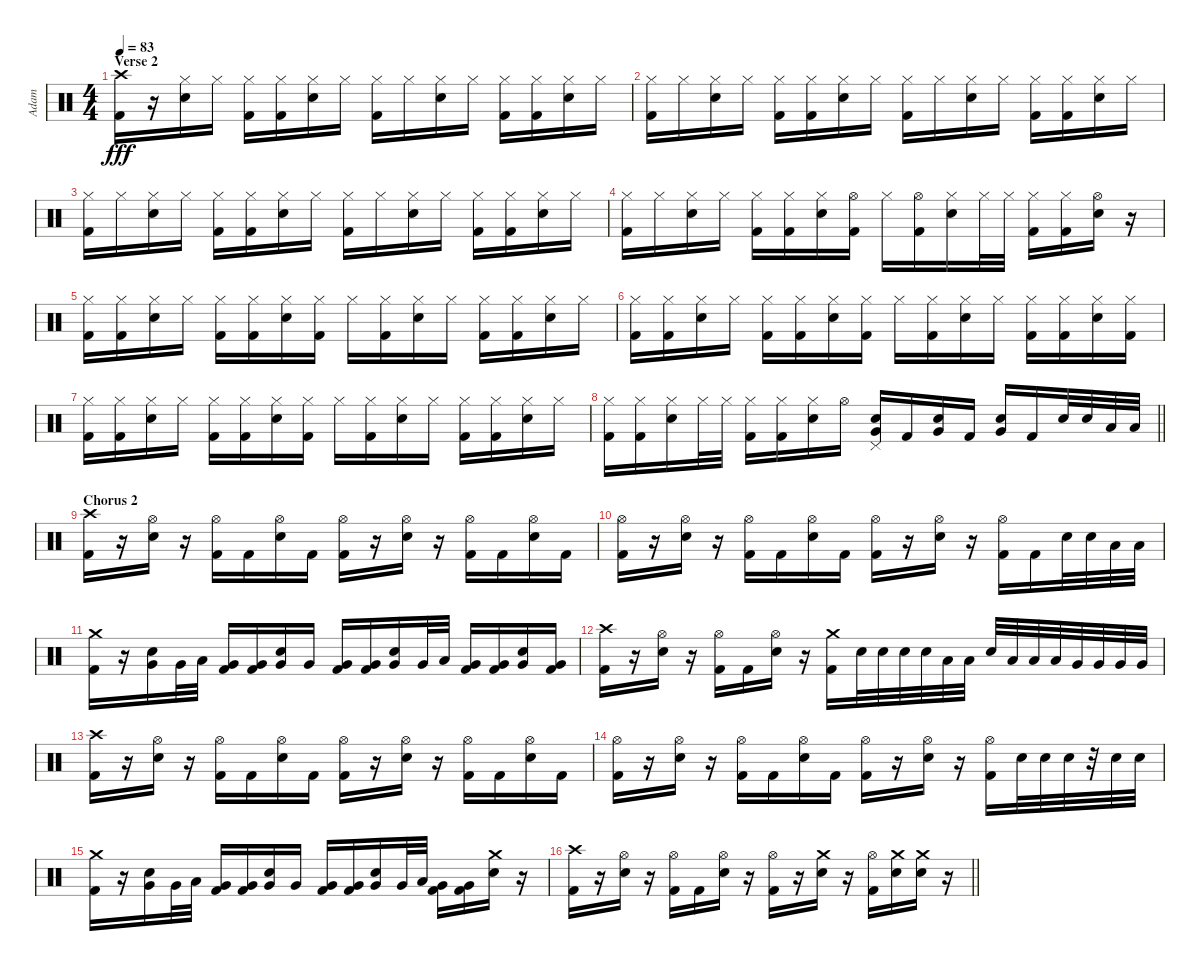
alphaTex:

\track ("Adam" "Adam") {instrument percussion}
\staff {score}
\articulation defaults
\ts (4 4)
\section ("" "Verse 2")
\tempo 83
\clef neutral
\ks c
("Crash high (hit)" "Kick (hit) 2").16{dy fff} r.16 ("Hi-Hat (closed)" "Electric Snare (hit)").16 "Hi-Hat (closed)".16 ("Hi-Hat (closed)" "Kick (hit) 2").16 ("Hi-Hat (closed)" "Kick (hit) 2").16 ("Hi-Hat (closed)" "Electric Snare (hit)").16 "Hi-Hat (closed)".16 ("Hi-Hat (closed)" "Kick (hit) 2").16 "Hi-Hat (closed)".16 ("Hi-Hat (closed)" "Electric Snare (hit)").16 "Hi-Hat (closed)".16 ("Hi-Hat (closed)" "Kick (hit) 2").16 ("Hi-Hat (closed)" "Kick (hit) 2").16 ("Hi-Hat (closed)" "Electric Snare (hit)").16 "Hi-Hat (closed)".16 |
("Hi-Hat (closed)" "Kick (hit) 2").16 "Hi-Hat (closed)".16 ("Hi-Hat (closed)" "Electric Snare (hit)").16 "Hi-Hat (closed)".16 ("Hi-Hat (closed)" "Kick (hit) 2").16 ("Hi-Hat (closed)" "Kick (hit) 2").16 ("Hi-Hat (closed)" "Electric Snare (hit)").16 "Hi-Hat (closed)".16 ("Hi-Hat (closed)" "Kick (hit) 2").16 "Hi-Hat (closed)".16 ("Hi-Hat (closed)" "Electric Snare (hit)").16 "Hi-Hat (closed)".16 ("Hi-Hat (closed)" "Kick (hit) 2").16 ("Hi-Hat (closed)" "Kick (hit) 2").16 ("Hi-Hat (closed)" "Electric Snare (hit)").16 "Hi-Hat (closed)".16 |
("Hi-Hat (closed)" "Kick (hit) 2").16 "Hi-Hat (closed)".16 ("Hi-Hat (closed)" "Electric Snare (hit)").16 "Hi-Hat (closed)".16 ("Hi-Hat (closed)" "Kick (hit) 2").16 ("Hi-Hat (closed)" "Kick (hit) 2").16 ("Hi-Hat (closed)" "Electric Snare (hit)").16 "Hi-Hat (closed)".16 ("Hi-Hat (closed)" "Kick (hit) 2").16 "Hi-Hat (closed)".16 ("Hi-Hat (closed)" "Electric Snare (hit)").16 "Hi-Hat (closed)".16 ("Hi-Hat (closed)" "Kick (hit) 2").16 ("Hi-Hat (closed)" "Kick (hit) 2").16 ("Hi-Hat (closed)" "Electric Snare (hit)").16 "Hi-Hat (closed)".16 |
("Hi-Hat (closed)" "Kick (hit) 2").16 "Hi-Hat (closed)".16 ("Hi-Hat (closed)" "Electric Snare (hit)").16 "Hi-Hat (closed)".16 ("Hi-Hat (closed)" "Kick (hit) 2").16 ("Hi-Hat (closed)" "Kick (hit) 2").16 ("Hi-Hat (closed)" "Electric Snare (hit)").16 ("Hi-Hat (open)" "Kick (hit) 2").16 "Hi-Hat (closed)".16 ("Hi-Hat (open)" "Kick (hit) 2").16 ("Hi-Hat (closed)" "Electric Snare (hit)").16 "Hi-Hat (closed)".32 "Hi-Hat (closed)".32 ("Hi-Hat (closed)" "Kick (hit) 2").16 ("Hi-Hat (closed)" "Kick (hit) 2").16 ("Hi-Hat (open)" "Electric Snare (hit)").16 r.16 |
("Hi-Hat (closed)" "Kick (hit) 2").16 ("Hi-Hat (closed)" "Kick (hit) 2").16 ("Hi-Hat (closed)" "Electric Snare (hit)").16 "Hi-Hat (closed)".16 ("Hi-Hat (closed)" "Kick (hit) 2").16 ("Hi-Hat (closed)" "Kick (hit) 2").16 ("Hi-Hat (closed)" "Electric Snare (hit)").16 ("Hi-Hat (closed)" "Kick (hit) 2").16 "Hi-Hat (closed)".16 ("Hi-Hat (closed)" "Kick (hit) 2").16 ("Hi-Hat (closed)" "Electric Snare (hit)").16 "Hi-Hat (closed)".16 ("Hi-Hat (closed)" "Kick (hit) 2").16 ("Hi-Hat (closed)" "Kick (hit) 2").16 ("Hi-Hat (closed)" "Electric Snare (hit)").16 "Hi-Hat (closed)".16 |
("Hi-Hat (closed)" "Kick (hit) 2").16 ("Hi-Hat (closed)" "Kick (hit) 2").16 ("Hi-Hat (closed)" "Electric Snare (hit)").16 "Hi-Hat (closed)".16 ("Hi-Hat (closed)" "Kick (hit) 2").16 ("Hi-Hat (closed)" "Kick (hit) 2").16 ("Hi-Hat (closed)" "Electric Snare (hit)").16 ("Hi-Hat (closed)" "Kick (hit) 2").16 "Hi-Hat (closed)".16 ("Hi-Hat (closed)" "Kick (hit) 2").16 ("Hi-Hat (closed)" "Electric Snare (hit)").16 "Hi-Hat (closed)".16 ("Hi-Hat (closed)" "Kick (hit) 2").16 ("Hi-Hat (closed)" "Kick (hit) 2").16 ("Hi-Hat (closed)" "Electric Snare (hit)").16 ("Hi-Hat (closed)" "Kick (hit) 2").16 |
("Hi-Hat (closed)" "Kick (hit) 2").16 ("Hi-Hat (closed)" "Kick (hit) 2").16 ("Hi-Hat (closed)" "Electric Snare (hit)").16 "Hi-Hat (closed)".16 ("Hi-Hat (closed)" "Kick (hit) 2").16 ("Hi-Hat (closed)" "Kick (hit) 2").16 ("Hi-Hat (closed)" "Electric Snare (hit)").16 ("Hi-Hat (closed)" "Kick (hit) 2").16 "Hi-Hat (closed)".16 ("Hi-Hat (closed)" "Kick (hit) 2").16 ("Hi-Hat (closed)" "Electric Snare (hit)").16 "Hi-Hat (closed)".16 ("Hi-Hat (closed)" "Kick (hit) 2").16 ("Hi-Hat (closed)" "Kick (hit) 2").16 ("Hi-Hat (closed)" "Electric Snare (hit)").16 "Hi-Hat (closed)".16 |
\barLineRight lightlight
("Hi-Hat (closed)" "Kick (hit) 2").16 ("Hi-Hat (closed)" "Kick (hit) 2").16 ("Hi-Hat (closed)" "Electric Snare (hit)").16 "Hi-Hat (closed)".32 "Hi-Hat (closed)".32 ("Hi-Hat (closed)" "Kick (hit) 2").16 ("Hi-Hat (closed)" "Kick (hit) 2").16 ("Hi-Hat (closed)" "Electric Snare (hit)").16 "Hi-Hat (open)".16 ("Pedal Hi-Hat (hit)" "Electric Snare (hit)" "Very Low Tom (hit)").16 "Kick (hit) 2".16 ("Electric Snare (hit)" "Very Low Tom (hit)").16 "Kick (hit) 2".16 ("Electric Snare (hit)" "Very Low Tom (hit)").16 "Kick (hit) 2".16 "Electric Snare (hit)".32 "Electric Snare (hit)".32 "Low Tom (hit)".32 "Low Tom (hit)".32 |
\section ("" "Chorus 2")
("Crash high (hit)" "Kick (hit) 2").16 r.16 ("Hi-Hat (open)" "Electric Snare (hit)").16 r.16 ("Hi-Hat (open)" "Kick (hit) 2").16 "Kick (hit) 2".16 ("Hi-Hat (open)" "Electric Snare (hit)").16 "Kick (hit) 2".16 ("Hi-Hat (open)" "Kick (hit) 2").16 r.16 ("Hi-Hat (open)" "Electric Snare (hit)").16 r.16 ("Hi-Hat (open)" "Kick (hit) 2").16 "Kick (hit) 2".16 ("Hi-Hat (open)" "Electric Snare (hit)").16 "Kick (hit) 2".16 |
("Hi-Hat (open)" "Kick (hit) 2").16 r.16 ("Hi-Hat (open)" "Electric Snare (hit)").16 r.16 ("Hi-Hat (open)" "Kick (hit) 2").16 "Kick (hit) 2".16 ("Hi-Hat (open)" "Electric Snare (hit)").16 "Kick (hit) 2".16 ("Hi-Hat (open)" "Kick (hit) 2").16 r.16 ("Hi-Hat (open)" "Electric Snare (hit)").16 r.16 ("Hi-Hat (open)" "Kick (hit) 2").16 "Kick (hit) 2".16 "Electric Snare (hit)".32 "Electric Snare (hit)".32 "Low Tom (hit)".32 "Low Tom (hit)".32 |
("Crash medium (hit)" "Kick (hit) 2").16 r.16 ("Electric Snare (hit)" "Very Low Tom (hit)").16 "Very Low Tom (hit)".32 "Low Tom (hit)".32 ("Very Low Tom (hit)" "Kick (hit) 2").16 ("Very Low Tom (hit)" "Kick (hit) 2").16 ("Electric Snare (hit)" "Very Low Tom (hit)").16 "Very Low Tom (hit)".16 ("Very Low Tom (hit)" "Kick (hit) 2").16 ("Very Low Tom (hit)" "Kick (hit) 2").16 ("Electric Snare (hit)" "Very Low Tom (hit)").16 "Very Low Tom (hit)".32 "Low Tom (hit)".32 ("Very Low Tom (hit)" "Kick (hit) 2").16 ("Very Low Tom (hit)" "Kick (hit) 2").16 ("Electric Snare (hit)" "Very Low Tom (hit)").16 ("Very Low Tom (hit)" "Kick (hit) 2").16 |
("Crash high (hit)" "Kick (hit) 2").16 r.16 ("Hi-Hat (open)" "Electric Snare (hit)").16 r.16 ("Hi-Hat (open)" "Kick (hit) 2").16 "Kick (hit) 2".16 ("Hi-Hat (open)" "Electric Snare (hit)").16 r.16 ("Crash medium (hit)" "Kick (hit) 2").16 "Electric Snare (hit)".32 "Electric Snare (hit)".32 "Electric Snare (hit)".32 "Electric Snare (hit)".32 "Low Tom (hit)".32 "Low Tom (hit)".32 "Electric Snare (hit)".32 "Low Tom (hit)".32 "Low Tom (hit)".32 "Low Tom (hit)".32 "Very Low Tom (hit)".32 "Very Low Tom (hit)".32 "Very Low Tom (hit)".32 "Very Low Tom (hit)".32 |
("Crash high (hit)" "Kick (hit) 2").16 r.16 ("Hi-Hat (open)" "Electric Snare (hit)").16 r.16 ("Hi-Hat (open)" "Kick (hit) 2").16 "Kick (hit) 2".16 ("Hi-Hat (open)" "Electric Snare (hit)").16 "Kick (hit) 2".16 ("Hi-Hat (open)" "Kick (hit) 2").16 r.16 ("Hi-Hat (open)" "Electric Snare (hit)").16 r.16 ("Hi-Hat (open)" "Kick (hit) 2").16 "Kick (hit) 2".16 ("Hi-Hat (open)" "Electric Snare (hit)").16 "Kick (hit) 2".16 |
("Hi-Hat (open)" "Kick (hit) 2").16 r.16 ("Hi-Hat (open)" "Electric Snare (hit)").16 r.16 ("Hi-Hat (open)" "Kick (hit) 2").16 "Kick (hit) 2".16 ("Hi-Hat (open)" "Electric Snare (hit)").16 "Kick (hit) 2".16 ("Hi-Hat (open)" "Kick (hit) 2").16 r.16 ("Hi-Hat (open)" "Electric Snare (hit)").16 r.16 ("Hi-Hat (open)" "Kick (hit) 2").16 "Electric Snare (hit)".32 "Electric Snare (hit)".32 "Electric Snare (hit)".32 r.32 "Electric Snare (hit)".32 "Electric Snare (hit)".32 |
("Crash medium (hit)" "Kick (hit) 2").16 r.16 ("Electric Snare (hit)" "Very Low Tom (hit)").16 "Very Low Tom (hit)".32 "Low Tom (hit)".32 ("Very Low Tom (hit)" "Kick (hit) 2").16 ("Very Low Tom (hit)" "Kick (hit) 2").16 ("Electric Snare (hit)" "Very Low Tom (hit)").16 "Very Low Tom (hit)".16 ("Very Low Tom (hit)" "Kick (hit) 2").16 ("Very Low Tom (hit)" "Kick (hit) 2").16 ("Electric Snare (hit)" "Very Low Tom (hit)").16 "Very Low Tom (hit)".32 "Low Tom (hit)".32 ("Very Low Tom (hit)" "Kick (hit) 2").16 ("Very Low Tom (hit)" "Kick (hit) 2").16 ("Crash medium (hit)" "Electric Snare (hit)").16 r.16 |
\barLineRight lightlight
("Crash high (hit)" "Kick (hit) 2").16 r.16 ("Hi-Hat (open)" "Electric Snare (hit)").16 r.16 ("Hi-Hat (open)" "Kick (hit) 2").16 "Kick (hit) 2".16 ("Hi-Hat (open)" "Electric Snare (hit)").16 r.16 ("Hi-Hat (open)" "Kick (hit) 2").16 r.16 ("Crash medium (hit)" "Electric Snare (hit)").16 r.16 ("Hi-Hat (open)" "Kick (hit) 2").16 ("Crash medium (hit)" "Electric Snare (hit)").16 ("Crash medium (hit)" "Electric Snare (hit)").16 r.16
